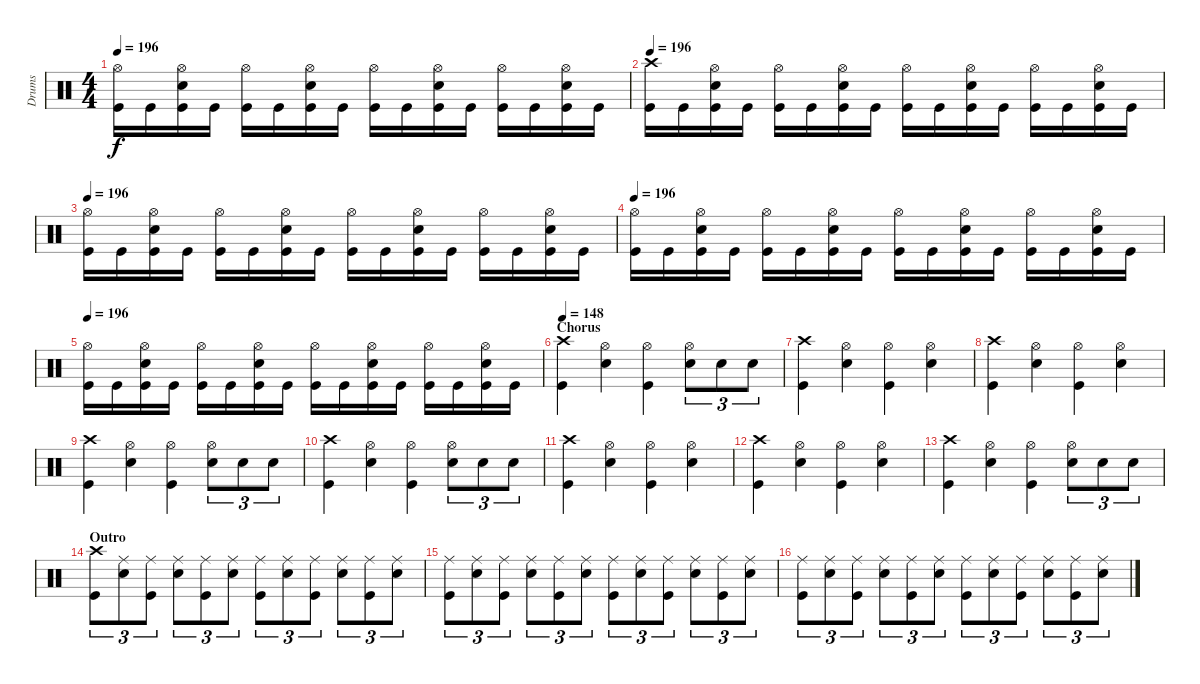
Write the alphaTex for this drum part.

\track ("Drums" "Drums") {instrument percussion}
\staff {score}
\articulation defaults
\ts (4 4)
\tempo 196
\clef neutral
\ks c
("Hi-Hat (open)" "Kick (hit)").16{dy f} "Kick (hit)".16 ("Hi-Hat (open)" "Electric Snare (hit)" "Kick (hit)").16 "Kick (hit)".16 ("Hi-Hat (open)" "Kick (hit)").16 "Kick (hit)".16 ("Hi-Hat (open)" "Electric Snare (hit)" "Kick (hit)").16 "Kick (hit)".16 ("Hi-Hat (open)" "Kick (hit)").16 "Kick (hit)".16 ("Hi-Hat (open)" "Electric Snare (hit)" "Kick (hit)").16 "Kick (hit)".16 ("Hi-Hat (open)" "Kick (hit)").16 "Kick (hit)".16 ("Hi-Hat (open)" "Electric Snare (hit)" "Kick (hit)").16 "Kick (hit)".16 |
\tempo 196
("Crash high (hit)" "Kick (hit)").16 "Kick (hit)".16 ("Hi-Hat (open)" "Electric Snare (hit)" "Kick (hit)").16 "Kick (hit)".16 ("Hi-Hat (open)" "Kick (hit)").16 "Kick (hit)".16 ("Hi-Hat (open)" "Electric Snare (hit)" "Kick (hit)").16 "Kick (hit)".16 ("Hi-Hat (open)" "Kick (hit)").16 "Kick (hit)".16 ("Hi-Hat (open)" "Electric Snare (hit)" "Kick (hit)").16 "Kick (hit)".16 ("Hi-Hat (open)" "Kick (hit)").16 "Kick (hit)".16 ("Hi-Hat (open)" "Electric Snare (hit)" "Kick (hit)").16 "Kick (hit)".16 |
\tempo 196
("Hi-Hat (open)" "Kick (hit)").16 "Kick (hit)".16 ("Hi-Hat (open)" "Electric Snare (hit)" "Kick (hit)").16 "Kick (hit)".16 ("Hi-Hat (open)" "Kick (hit)").16 "Kick (hit)".16 ("Hi-Hat (open)" "Electric Snare (hit)" "Kick (hit)").16 "Kick (hit)".16 ("Hi-Hat (open)" "Kick (hit)").16 "Kick (hit)".16 ("Hi-Hat (open)" "Electric Snare (hit)" "Kick (hit)").16 "Kick (hit)".16 ("Hi-Hat (open)" "Kick (hit)").16 "Kick (hit)".16 ("Hi-Hat (open)" "Electric Snare (hit)" "Kick (hit)").16 "Kick (hit)".16 |
\tempo 196
("Hi-Hat (open)" "Kick (hit)").16 "Kick (hit)".16 ("Hi-Hat (open)" "Electric Snare (hit)" "Kick (hit)").16 "Kick (hit)".16 ("Hi-Hat (open)" "Kick (hit)").16 "Kick (hit)".16 ("Hi-Hat (open)" "Electric Snare (hit)" "Kick (hit)").16 "Kick (hit)".16 ("Hi-Hat (open)" "Kick (hit)").16 "Kick (hit)".16 ("Hi-Hat (open)" "Electric Snare (hit)" "Kick (hit)").16 "Kick (hit)".16 ("Hi-Hat (open)" "Kick (hit)").16 "Kick (hit)".16 ("Hi-Hat (open)" "Electric Snare (hit)" "Kick (hit)").16 "Kick (hit)".16 |
\tempo 196
("Hi-Hat (open)" "Kick (hit)").16 "Kick (hit)".16 ("Hi-Hat (open)" "Electric Snare (hit)" "Kick (hit)").16 "Kick (hit)".16 ("Hi-Hat (open)" "Kick (hit)").16 "Kick (hit)".16 ("Hi-Hat (open)" "Electric Snare (hit)" "Kick (hit)").16 "Kick (hit)".16 ("Hi-Hat (open)" "Kick (hit)").16 "Kick (hit)".16 ("Hi-Hat (open)" "Electric Snare (hit)" "Kick (hit)").16 "Kick (hit)".16 ("Hi-Hat (open)" "Kick (hit)").16 "Kick (hit)".16 ("Hi-Hat (open)" "Electric Snare (hit)" "Kick (hit)").16 "Kick (hit)".16 |
\section ("" "Chorus")
\tempo 148
("Crash high (hit)" "Kick (hit)").4 ("Hi-Hat (open)" "Electric Snare (hit)").4 ("Hi-Hat (open)" "Kick (hit)").4 ("Hi-Hat (open)" "Electric Snare (hit)").8{tu (3 2)} "Electric Snare (hit)".8{tu (3 2)} "Electric Snare (hit)".8{tu (3 2)} |
("Crash high (hit)" "Kick (hit)").4 ("Hi-Hat (open)" "Electric Snare (hit)").4 ("Hi-Hat (open)" "Kick (hit)").4 ("Hi-Hat (open)" "Electric Snare (hit)").4 |
("Crash high (hit)" "Kick (hit)").4 ("Hi-Hat (open)" "Electric Snare (hit)").4 ("Hi-Hat (open)" "Kick (hit)").4 ("Hi-Hat (open)" "Electric Snare (hit)").4 |
("Crash high (hit)" "Kick (hit)").4 ("Hi-Hat (open)" "Electric Snare (hit)").4 ("Hi-Hat (open)" "Kick (hit)").4 ("Hi-Hat (open)" "Electric Snare (hit)").8{tu (3 2)} "Electric Snare (hit)".8{tu (3 2)} "Electric Snare (hit)".8{tu (3 2)} |
("Crash high (hit)" "Kick (hit)").4 ("Hi-Hat (open)" "Electric Snare (hit)").4 ("Hi-Hat (open)" "Kick (hit)").4 ("Hi-Hat (open)" "Electric Snare (hit)").8{tu (3 2)} "Electric Snare (hit)".8{tu (3 2)} "Electric Snare (hit)".8{tu (3 2)} |
("Crash high (hit)" "Kick (hit)").4 ("Hi-Hat (open)" "Electric Snare (hit)").4 ("Hi-Hat (open)" "Kick (hit)").4 ("Hi-Hat (open)" "Electric Snare (hit)").4 |
("Crash high (hit)" "Kick (hit)").4 ("Hi-Hat (open)" "Electric Snare (hit)").4 ("Hi-Hat (open)" "Kick (hit)").4 ("Hi-Hat (open)" "Electric Snare (hit)").4 |
("Crash high (hit)" "Kick (hit)").4 ("Hi-Hat (open)" "Electric Snare (hit)").4 ("Hi-Hat (open)" "Kick (hit)").4 ("Hi-Hat (open)" "Electric Snare (hit)").8{tu (3 2)} "Electric Snare (hit)".8{tu (3 2)} "Electric Snare (hit)".8{tu (3 2)} |
\section ("" "Outro")
("Crash high (hit)" "Kick (hit)").8{tu (3 2)} ("Ride (middle)" "Electric Snare (hit)").8{tu (3 2)} ("Ride (middle)" "Kick (hit)").8{tu (3 2)} ("Ride (middle)" "Electric Snare (hit)").8{tu (3 2)} ("Ride (middle)" "Kick (hit)").8{tu (3 2)} ("Ride (middle)" "Electric Snare (hit)").8{tu (3 2)} ("Ride (middle)" "Kick (hit)").8{tu (3 2)} ("Ride (middle)" "Electric Snare (hit)").8{tu (3 2)} ("Ride (middle)" "Kick (hit)").8{tu (3 2)} ("Ride (middle)" "Electric Snare (hit)").8{tu (3 2)} ("Ride (middle)" "Kick (hit)").8{tu (3 2)} ("Ride (middle)" "Electric Snare (hit)").8{tu (3 2)} |
("Ride (middle)" "Kick (hit)").8{tu (3 2)} ("Ride (middle)" "Electric Snare (hit)").8{tu (3 2)} ("Ride (middle)" "Kick (hit)").8{tu (3 2)} ("Ride (middle)" "Electric Snare (hit)").8{tu (3 2)} ("Ride (middle)" "Kick (hit)").8{tu (3 2)} ("Ride (middle)" "Electric Snare (hit)").8{tu (3 2)} ("Ride (middle)" "Kick (hit)").8{tu (3 2)} ("Ride (middle)" "Electric Snare (hit)").8{tu (3 2)} ("Ride (middle)" "Kick (hit)").8{tu (3 2)} ("Ride (middle)" "Electric Snare (hit)").8{tu (3 2)} ("Ride (middle)" "Kick (hit)").8{tu (3 2)} ("Ride (middle)" "Electric Snare (hit)").8{tu (3 2)} |
("Ride (middle)" "Kick (hit)").8{tu (3 2)} ("Ride (middle)" "Electric Snare (hit)").8{tu (3 2)} ("Ride (middle)" "Kick (hit)").8{tu (3 2)} ("Ride (middle)" "Electric Snare (hit)").8{tu (3 2)} ("Ride (middle)" "Kick (hit)").8{tu (3 2)} ("Ride (middle)" "Electric Snare (hit)").8{tu (3 2)} ("Ride (middle)" "Kick (hit)").8{tu (3 2)} ("Ride (middle)" "Electric Snare (hit)").8{tu (3 2)} ("Ride (middle)" "Kick (hit)").8{tu (3 2)} ("Ride (middle)" "Electric Snare (hit)").8{tu (3 2)} ("Ride (middle)" "Kick (hit)").8{tu (3 2)} ("Ride (middle)" "Electric Snare (hit)").8{tu (3 2)}
